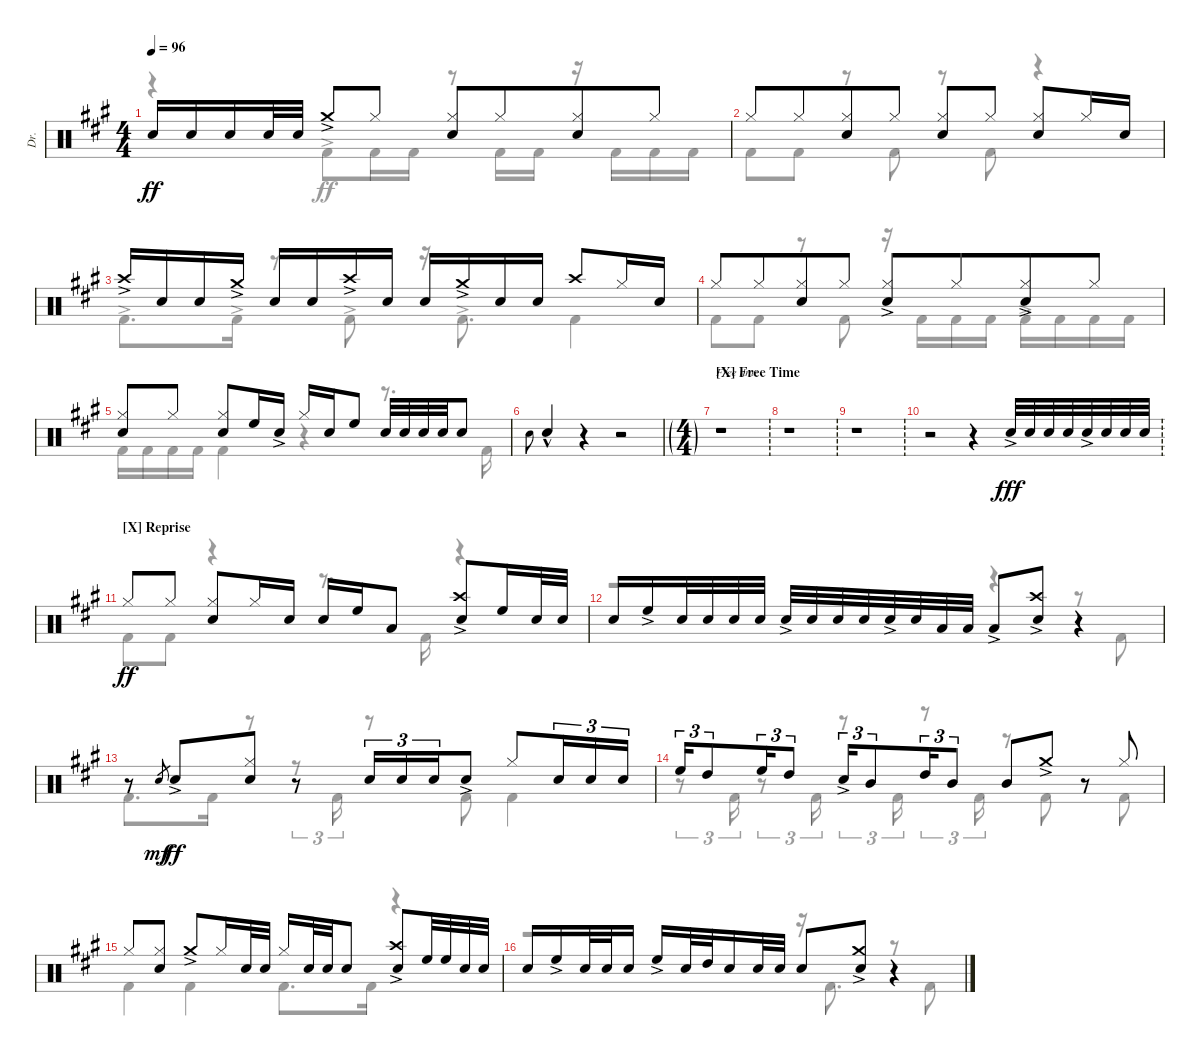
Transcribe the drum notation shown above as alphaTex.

\defaultSystemsLayout 4
\bracketExtendMode groupsimilarinstruments
\otherSystemsTrackNameOrientation horizontal
\track ("Drums" "Dr.") {instrument percussion}
\staff {score}
\articulation defaults
\voice
\ts (4 4)
\tempo 96
\clef neutral
\ks a "Snare (hit) 2"{acc forcenatural}.16{dy ff} "Snare (hit) 2"{acc forcenatural}.16 "Snare (hit) 2"{acc forcenatural}.16 "Snare (hit) 2"{acc forcenatural}.32 "Snare (hit) 2"{acc forcenatural}.32 "Crash medium (hit)"{ac acc forcenatural}.8 "Hi-Hat (closed)"{acc forcenatural}.8
("Hi-Hat (closed)"{acc forcenatural} "Snare (hit) 2"{acc forcenatural}).8 "Hi-Hat (closed)"{acc forcenatural}.8{beam merge} ("Hi-Hat (closed)"{acc forcenatural} "Snare (hit) 2"{acc forcenatural}).8 "Hi-Hat (closed)"{acc forcenatural}.8 |
"Hi-Hat (closed)"{acc forcenatural}.8 "Hi-Hat (closed)"{acc forcenatural}.8{beam merge} ("Hi-Hat (closed)"{acc forcenatural} "Snare (hit) 2"{acc forcenatural}).8 "Hi-Hat (closed)"{acc forcenatural}.8 ("Hi-Hat (closed)"{acc forcenatural} "Snare (hit) 2"{acc forcenatural}).8 "Hi-Hat (closed)"{acc forcenatural}.8{beam split} ("Hi-Hat (closed)"{acc forcenatural} "Snare (hit) 2"{acc forcenatural}).8 "Hi-Hat (closed)"{acc forcenatural}.16 "Snare (hit) 2"{acc forcenatural}.16 |
"Crash high (hit)"{ac acc forcenatural}.16 "Snare (hit) 2"{acc forcenatural}.16 "Snare (hit) 2"{acc forcenatural}.16 "Crash medium (hit)"{ac acc forcenatural}.16 "Snare (hit) 2"{acc forcenatural}.16 "Snare (hit) 2"{acc forcenatural}.16 "Crash high (hit)"{ac acc forcenatural}.16 "Snare (hit) 2"{acc forcenatural}.16 "Snare (hit) 2"{acc forcenatural}.16 "Crash medium (hit)"{ac acc forcenatural}.16 "Snare (hit) 2"{acc forcenatural}.16 "Snare (hit) 2"{acc forcenatural}.16 "Crash high (hit)"{acc forcenatural}.8 "Hi-Hat (closed)"{acc forcenatural}.16 "Snare (hit) 2"{acc forcenatural}.16 |
"Hi-Hat (closed)"{acc forcenatural}.8 "Hi-Hat (closed)"{acc forcenatural}.8{beam merge} ("Hi-Hat (closed)"{acc forcenatural} "Snare (hit) 2"{acc forcenatural}).8 "Hi-Hat (closed)"{acc forcenatural}.8 ("Hi-Hat (closed)"{ac acc forcenatural} "Snare (hit) 2"{ac acc forcenatural}).8 "Hi-Hat (closed)"{acc forcenatural}.8{beam merge} ("Hi-Hat (closed)"{ac acc forcenatural} "Snare (hit) 2"{ac acc forcenatural}).8 "Hi-Hat (closed)"{acc forcenatural}.8 |
("Hi-Hat (closed)"{acc forcenatural} "Snare (hit) 2"{acc forcenatural}).8 "Hi-Hat (closed)"{acc forcenatural}.8 ("Hi-Hat (closed)"{acc forcenatural} "Snare (hit) 2"{acc forcenatural}).8 "High Floor Tom (hit)"{acc forcenatural}.16 "Snare (hit) 2"{ac acc forcenatural}.16 "Hi-Hat (closed)"{acc forcenatural}.16 "Snare (hit) 2"{acc forcenatural}.16 "High Floor Tom (hit)"{acc forcenatural}.8 "Snare (hit) 2"{acc forcenatural}.32 "Snare (hit) 2"{acc forcenatural}.32 "Snare (hit) 2"{acc forcenatural}.32 "Snare (hit) 2"{acc forcenatural}.32 "Snare (hit) 2"{acc forcenatural}.8 |
"Snare (hit) 2"{acc forcenatural}.8{gr onbeat beam invert} "Snare (hit) 2"{hac acc forcenatural}.4{beam invert} r.4 r.2 |
\ft
\section ("X" "Free Time")
r.1 |
\ft
r.1 |
\ft
r.1 |
\ft
r.2 r.4 "Snare (hit) 2"{ac acc forcenatural}.32{dy fff beam invert} "Snare (hit) 2"{acc forcenatural}.32 "Snare (hit) 2"{acc forcenatural}.32 "Snare (hit) 2"{acc forcenatural}.32 "Snare (hit) 2"{ac acc forcenatural}.32 "Snare (hit) 2"{acc forcenatural}.32 "Snare (hit) 2"{acc forcenatural}.32 "Snare (hit) 2"{acc forcenatural}.32 |
\section ("X" "Reprise")
"Hi-Hat (closed)"{acc forcenatural}.8{dy ff} "Hi-Hat (closed)"{acc forcenatural}.8 ("Hi-Hat (closed)"{acc forcenatural} "Snare (hit) 2"{acc forcenatural}).8 "Hi-Hat (closed)"{acc forcenatural}.16 "Snare (hit) 2"{acc forcenatural}.16 "Snare (hit) 2"{acc forcenatural}.16 "High Floor Tom (hit)"{acc forcenatural}.16 "Low Tom (hit)"{acc forcenatural}.8 ("Snare (hit) 2"{acc forcenatural} "Crash high (hit)"{ac acc forcenatural}).8 "High Floor Tom (hit)"{acc forcenatural}.16 "Snare (hit) 2"{acc forcenatural}.32 "Snare (hit) 2"{acc forcenatural}.32 |
"Snare (hit) 2"{acc forcenatural}.16 "High Floor Tom (hit)"{ac acc forcenatural}.16 "Snare (hit) 2"{acc forcenatural}.32 "Snare (hit) 2"{acc forcenatural}.32 "Snare (hit) 2"{acc forcenatural}.32 "Snare (hit) 2"{acc forcenatural}.32 "Snare (hit) 2"{ac acc forcenatural}.32 "Snare (hit) 2"{acc forcenatural}.32 "Snare (hit) 2"{acc forcenatural}.32 "Snare (hit) 2"{acc forcenatural}.32 "Snare (hit) 2"{ac acc forcenatural}.32 "Snare (hit) 2"{acc forcenatural}.32 "Low Tom (hit)"{acc forcenatural}.32 "Low Tom (hit)"{acc forcenatural}.32 "Low Tom (hit)"{ac acc forcenatural}.8 ("Snare (hit) 2"{ac acc forcenatural} "Crash high (hit)"{ac acc forcenatural}).8 r.4 |
r.8 "Snare (hit) 2"{acc forcenatural}.8{gr dy mf} "Snare (hit) 2"{ac acc forcenatural}.8{dy ff beam merge} ("Snare (hit) 2"{acc forcenatural} "Hi-Hat (closed)"{acc forcenatural}).8 r.8 "Snare (hit) 2"{acc forcenatural}.16{tu (3 2)} "Snare (hit) 2"{acc forcenatural}.16{tu (3 2)} "Snare (hit) 2"{acc forcenatural}.16{tu (3 2) beam merge} "Snare (hit) 2"{ac acc forcenatural}.8 "Hi-Hat (closed)"{acc forcenatural}.8{beam merge} "Snare (hit) 2"{acc forcenatural}.16{tu (3 2)} "Snare (hit) 2"{acc forcenatural}.16{tu (3 2)} "Snare (hit) 2"{acc forcenatural}.16{tu (3 2)} |
"High Floor Tom (hit)"{acc forcenatural}.16{tu (3 2)} "High Tom (hit)"{acc forcenatural}.8{tu (3 2) beam merge} "High Floor Tom (hit)"{acc forcenatural}.16{tu (3 2)} "High Tom (hit)"{acc forcenatural}.8{tu (3 2)} "Snare (hit) 2"{ac acc forcenatural}.16{tu (3 2)} "Mid Tom (hit)"{acc forcenatural}.8{tu (3 2) beam merge} "High Tom (hit)"{acc forcenatural}.16{tu (3 2)} "Mid Tom (hit)"{acc forcenatural}.8{tu (3 2)} "Mid Tom (hit)"{acc forcenatural}.8 "Crash medium (hit)"{ac acc forcenatural}.8 r.8 "Hi-Hat (closed)"{acc forcenatural}.8 |
"Hi-Hat (closed)"{acc forcenatural}.8 ("Hi-Hat (closed)"{acc forcenatural} "Snare (hit) 2"{acc forcenatural}).8 "Crash medium (hit)"{ac acc forcenatural}.8 "Hi-Hat (closed)"{acc forcenatural}.16 "Snare (hit) 2"{acc forcenatural}.32 "Snare (hit) 2"{acc forcenatural}.32 "Hi-Hat (closed)"{acc forcenatural}.16 "Snare (hit) 2"{acc forcenatural}.32 "Snare (hit) 2"{acc forcenatural}.32 "Snare (hit) 2"{acc forcenatural}.8 ("Snare (hit) 2"{acc forcenatural} "Crash high (hit)"{ac acc forcenatural}).8 "High Floor Tom (hit)"{acc forcenatural}.32 "High Floor Tom (hit)"{acc forcenatural}.32 "Snare (hit) 2"{acc forcenatural}.32 "Snare (hit) 2"{acc forcenatural}.32 |
"Snare (hit) 2"{acc forcenatural}.16 "High Floor Tom (hit)"{ac acc forcenatural}.16 "Snare (hit) 2"{acc forcenatural}.32 "Snare (hit) 2"{acc forcenatural}.32 "Snare (hit) 2"{acc forcenatural}.16 "High Floor Tom (hit)"{ac acc forcenatural}.16 "Snare (hit) 2"{acc forcenatural}.32 "High Tom (hit)"{acc forcenatural}.32 "Snare (hit) 2"{acc forcenatural}.16 "Snare (hit) 2"{acc forcenatural}.32 "Snare (hit) 2"{acc forcenatural}.32 "Snare (hit) 2"{acc forcenatural}.8 ("Snare (hit) 2"{ac acc forcenatural} "Crash medium (hit)"{ac acc forcenatural}).8 r.4
\voice
\clef neutral
\ottava regular
\simile none
\ks a
r.4{dy ff} "Kick (hit) 2"{ac acc forcenatural}.8 "Kick (hit) 2"{acc forcenatural}.16 "Kick (hit) 2"{acc forcenatural}.16 r.8 "Kick (hit) 2"{acc forcenatural}.16 "Kick (hit) 2"{acc forcenatural}.16 r.16 "Kick (hit) 2"{acc forcenatural}.16 "Kick (hit) 2"{acc forcenatural}.16 "Kick (hit) 2"{acc forcenatural}.16 |
"Kick (hit) 2"{acc forcenatural}.8 "Kick (hit) 2"{acc forcenatural}.8 r.8 "Kick (hit) 2"{acc forcenatural}.8 r.8 "Kick (hit) 2"{acc forcenatural}.8 r.4 |
"Kick (hit) 2"{ac acc forcenatural}.8{d} "Kick (hit) 2"{ac acc forcenatural}.16 r.8 "Kick (hit) 2"{ac acc forcenatural}.8 r.16 "Kick (hit) 2"{ac acc forcenatural}.8{d} "Kick (hit) 2"{acc forcenatural}.4 |
"Kick (hit) 2"{acc forcenatural}.8 "Kick (hit) 2"{acc forcenatural}.8 r.8 "Kick (hit) 2"{acc forcenatural}.8 r.16 "Kick (hit) 2"{acc forcenatural}.16 "Kick (hit) 2"{acc forcenatural}.16 "Kick (hit) 2"{acc forcenatural}.16 "Kick (hit) 2"{ac acc forcenatural}.16 "Kick (hit) 2"{acc forcenatural}.16 "Kick (hit) 2"{acc forcenatural}.16 "Kick (hit) 2"{acc forcenatural}.16 |
"Kick (hit) 2"{acc forcenatural}.16 "Kick (hit) 2"{acc forcenatural}.16 "Kick (hit) 2"{acc forcenatural}.16 "Kick (hit) 2"{acc forcenatural}.16 "Kick (hit) 2"{acc forcenatural}.4 r.4 r.8{d} "Kick (hit) 2"{acc forcenatural}.16 |
|
|
|
|
|
"Kick (hit) 2"{acc forcenatural}.8 "Kick (hit) 2"{acc forcenatural}.8 r.4 r.8{d} "Kick (hit) 2"{acc forcenatural}.16 r.4 |
r.2 r.4 r.8 "Kick (hit) 2"{acc forcenatural}.8 |
"Kick (hit) 2"{acc forcenatural}.8{d} "Kick (hit) 2"{acc forcenatural}.16 r.8 r.8{tu (3 2)} "Kick (hit) 2"{acc forcenatural}.16{tu (3 2)} r.8 "Kick (hit) 2"{acc forcenatural}.8 "Kick (hit) 2"{acc forcenatural}.4 |
r.8{tu (3 2)} "Kick (hit) 2"{acc forcenatural}.16{tu (3 2)} r.8{tu (3 2)} "Kick (hit) 2"{acc forcenatural}.16{tu (3 2)} r.8{tu (3 2)} "Kick (hit) 2"{acc forcenatural}.16{tu (3 2)} r.8{tu (3 2)} "Kick (hit) 2"{acc forcenatural}.16{tu (3 2)} r.8 "Kick (hit) 2"{acc forcenatural}.8 r.8 "Kick (hit) 2"{acc forcenatural}.8 |
"Kick (hit) 2"{acc forcenatural}.4 "Kick (hit) 2"{acc forcenatural}.4 "Kick (hit) 2"{acc forcenatural}.8{d} "Kick (hit) 2"{acc forcenatural}.16 r.4 |
r.2 r.16 "Kick (hit) 2"{acc forcenatural}.8{d} r.8 "Kick (hit) 2"{acc forcenatural}.8
